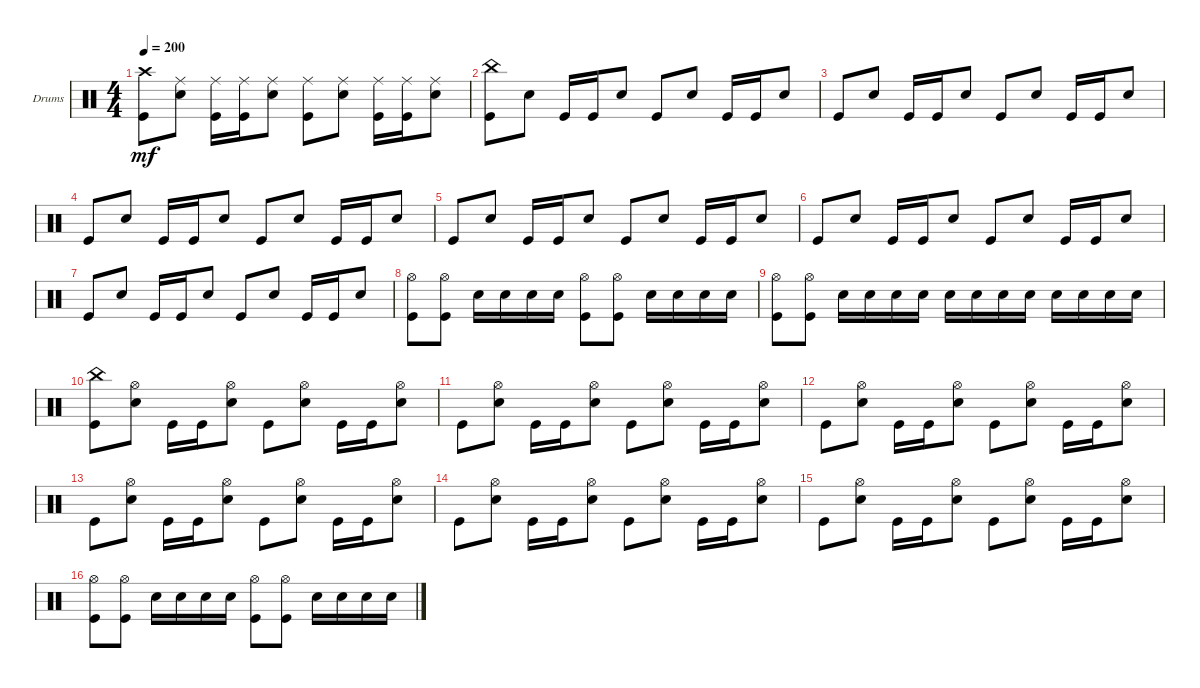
\defaultSystemsLayout 4
\bracketExtendMode groupsimilarinstruments
\firstSystemTrackNameOrientation horizontal
\otherSystemsTrackNameOrientation horizontal
\track ("Hell on da drums" "Drums") {instrument percussion}
\staff {score}
\articulation defaults
\ts (4 4)
\tempo 200
\clef neutral
\ks c
("Kick (hit)" "Crash high (hit)").8{dy mf} ("Snare (hit) 2" "Ride (middle)").8 ("Kick (hit)" "Ride (middle)").16 ("Kick (hit)" "Ride (middle)").16 ("Snare (hit) 2" "Ride (middle)").8 ("Kick (hit)" "Ride (middle)").8 ("Snare (hit) 2" "Ride (middle)").8 ("Kick (hit)" "Ride (middle)").16 ("Kick (hit)" "Ride (middle)").16 ("Snare (hit) 2" "Ride (middle)").8 |
("Kick (hit)" "China (hit)").8 "Snare (hit) 2".8 "Kick (hit)".16 "Kick (hit)".16 "Snare (hit) 2".8 "Kick (hit)".8 "Snare (hit) 2".8 "Kick (hit)".16 "Kick (hit)".16 "Snare (hit) 2".8 |
"Kick (hit)".8 "Snare (hit) 2".8 "Kick (hit)".16 "Kick (hit)".16 "Snare (hit) 2".8 "Kick (hit)".8 "Snare (hit) 2".8 "Kick (hit)".16 "Kick (hit)".16 "Snare (hit) 2".8 |
"Kick (hit)".8 "Snare (hit) 2".8 "Kick (hit)".16 "Kick (hit)".16 "Snare (hit) 2".8 "Kick (hit)".8 "Snare (hit) 2".8 "Kick (hit)".16 "Kick (hit)".16 "Snare (hit) 2".8 |
"Kick (hit)".8 "Snare (hit) 2".8 "Kick (hit)".16 "Kick (hit)".16 "Snare (hit) 2".8 "Kick (hit)".8 "Snare (hit) 2".8 "Kick (hit)".16 "Kick (hit)".16 "Snare (hit) 2".8 |
"Kick (hit)".8 "Snare (hit) 2".8 "Kick (hit)".16 "Kick (hit)".16 "Snare (hit) 2".8 "Kick (hit)".8 "Snare (hit) 2".8 "Kick (hit)".16 "Kick (hit)".16 "Snare (hit) 2".8 |
"Kick (hit)".8 "Snare (hit) 2".8 "Kick (hit)".16 "Kick (hit)".16 "Snare (hit) 2".8 "Kick (hit)".8 "Snare (hit) 2".8 "Kick (hit)".16 "Kick (hit)".16 "Snare (hit) 2".8 |
("Kick (hit)" "Hi-Hat (open)").8 ("Kick (hit)" "Hi-Hat (open)").8 "Snare (hit) 2".16 "Snare (hit) 2".16 "Snare (hit) 2".16 "Snare (hit) 2".16 ("Kick (hit)" "Hi-Hat (open)").8 ("Kick (hit)" "Hi-Hat (open)").8 "Snare (hit) 2".16 "Snare (hit) 2".16 "Snare (hit) 2".16 "Snare (hit) 2".16 |
("Kick (hit)" "Hi-Hat (open)").8 ("Kick (hit)" "Hi-Hat (open)").8 "Snare (hit) 2".16 "Snare (hit) 2".16 "Snare (hit) 2".16 "Snare (hit) 2".16 "Snare (hit) 2".16 "Snare (hit) 2".16 "Snare (hit) 2".16 "Snare (hit) 2".16 "Snare (hit) 2".16 "Snare (hit) 2".16 "Snare (hit) 2".16 "Snare (hit) 2".16 |
("Kick (hit)" "China (hit)").8 ("Snare (hit) 2" "Hi-Hat (open)").8 "Kick (hit)".16 "Kick (hit)".16 ("Snare (hit) 2" "Hi-Hat (open)").8 "Kick (hit)".8 ("Snare (hit) 2" "Hi-Hat (open)").8 "Kick (hit)".16 "Kick (hit)".16 ("Snare (hit) 2" "Hi-Hat (open)").8 |
"Kick (hit)".8 ("Snare (hit) 2" "Hi-Hat (open)").8 "Kick (hit)".16 "Kick (hit)".16 ("Snare (hit) 2" "Hi-Hat (open)").8 "Kick (hit)".8 ("Snare (hit) 2" "Hi-Hat (open)").8 "Kick (hit)".16 "Kick (hit)".16 ("Snare (hit) 2" "Hi-Hat (open)").8 |
"Kick (hit)".8 ("Snare (hit) 2" "Hi-Hat (open)").8 "Kick (hit)".16 "Kick (hit)".16 ("Snare (hit) 2" "Hi-Hat (open)").8 "Kick (hit)".8 ("Snare (hit) 2" "Hi-Hat (open)").8 "Kick (hit)".16 "Kick (hit)".16 ("Snare (hit) 2" "Hi-Hat (open)").8 |
"Kick (hit)".8 ("Snare (hit) 2" "Hi-Hat (open)").8 "Kick (hit)".16 "Kick (hit)".16 ("Snare (hit) 2" "Hi-Hat (open)").8 "Kick (hit)".8 ("Snare (hit) 2" "Hi-Hat (open)").8 "Kick (hit)".16 "Kick (hit)".16 ("Snare (hit) 2" "Hi-Hat (open)").8 |
"Kick (hit)".8 ("Snare (hit) 2" "Hi-Hat (open)").8 "Kick (hit)".16 "Kick (hit)".16 ("Snare (hit) 2" "Hi-Hat (open)").8 "Kick (hit)".8 ("Snare (hit) 2" "Hi-Hat (open)").8 "Kick (hit)".16 "Kick (hit)".16 ("Snare (hit) 2" "Hi-Hat (open)").8 |
"Kick (hit)".8 ("Snare (hit) 2" "Hi-Hat (open)").8 "Kick (hit)".16 "Kick (hit)".16 ("Snare (hit) 2" "Hi-Hat (open)").8 "Kick (hit)".8 ("Snare (hit) 2" "Hi-Hat (open)").8 "Kick (hit)".16 "Kick (hit)".16 ("Snare (hit) 2" "Hi-Hat (open)").8 |
("Kick (hit)" "Hi-Hat (open)").8 ("Kick (hit)" "Hi-Hat (open)").8 "Snare (hit) 2".16 "Snare (hit) 2".16 "Snare (hit) 2".16 "Snare (hit) 2".16 ("Kick (hit)" "Hi-Hat (open)").8 ("Kick (hit)" "Hi-Hat (open)").8 "Snare (hit) 2".16 "Snare (hit) 2".16 "Snare (hit) 2".16 "Snare (hit) 2".16
